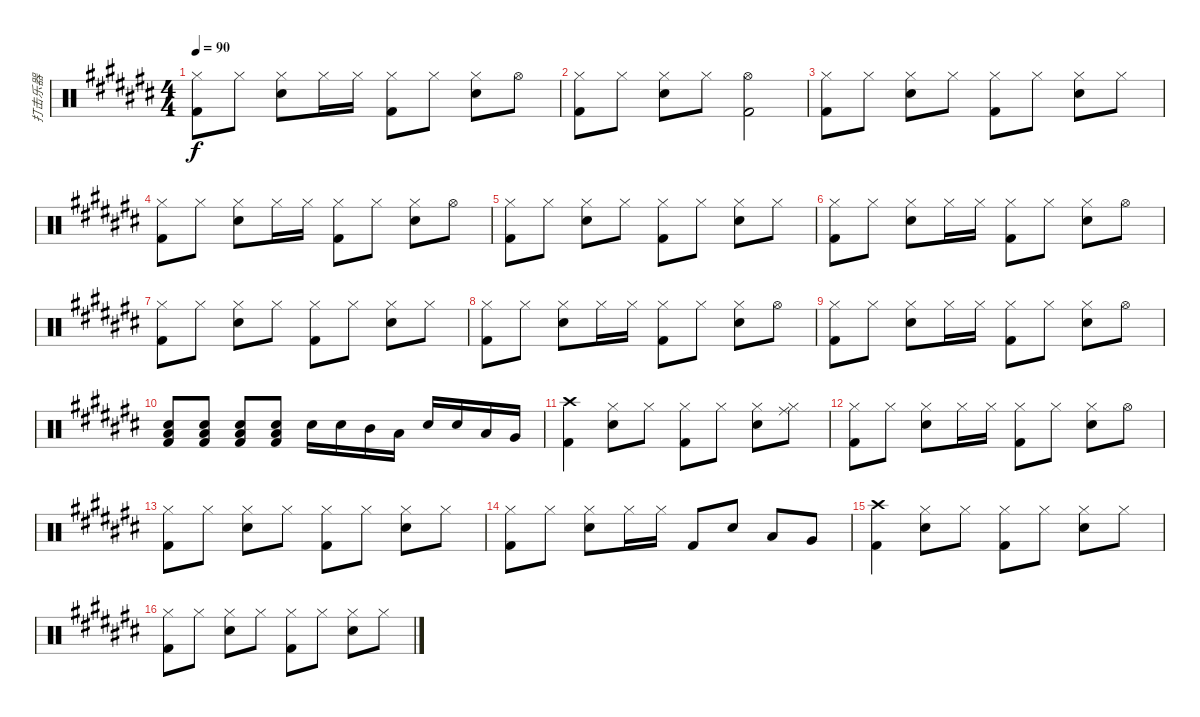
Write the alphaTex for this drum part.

\track ("打击乐器" "打击乐器") {instrument percussion}
\staff {score}
\articulation defaults
\ts (4 4)
\tempo 90
\clef neutral
\ks c#
("Hi-Hat (closed)" "Kick (hit) 2").8{dy f} "Hi-Hat (closed)".8 ("Hi-Hat (closed)" "Snare (hit) 2").8 "Hi-Hat (closed)".16 "Hi-Hat (closed)".16 ("Hi-Hat (closed)" "Kick (hit) 2").8 "Hi-Hat (closed)".8 ("Hi-Hat (closed)" "Snare (hit) 2").8 "Hi-Hat (open)".8 |
("Hi-Hat (closed)" "Kick (hit) 2").8 "Hi-Hat (closed)".8 ("Hi-Hat (closed)" "Snare (hit) 2").8 "Hi-Hat (closed)".8 ("Hi-Hat (open)" "Kick (hit) 2").2 |
("Hi-Hat (closed)" "Kick (hit) 2").8 "Hi-Hat (closed)".8 ("Hi-Hat (closed)" "Snare (hit) 2").8 "Hi-Hat (closed)".8 ("Hi-Hat (closed)" "Kick (hit) 2").8 "Hi-Hat (closed)".8 ("Hi-Hat (closed)" "Snare (hit) 2").8 "Hi-Hat (closed)".8 |
("Hi-Hat (closed)" "Kick (hit) 2").8 "Hi-Hat (closed)".8 ("Hi-Hat (closed)" "Snare (hit) 2").8 "Hi-Hat (closed)".16 "Hi-Hat (closed)".16 ("Hi-Hat (closed)" "Kick (hit) 2").8 "Hi-Hat (closed)".8 ("Hi-Hat (closed)" "Snare (hit) 2").8 "Hi-Hat (open)".8 |
("Hi-Hat (closed)" "Kick (hit) 2").8 "Hi-Hat (closed)".8 ("Hi-Hat (closed)" "Snare (hit) 2").8 "Hi-Hat (closed)".8 ("Hi-Hat (closed)" "Kick (hit) 2").8 "Hi-Hat (closed)".8 ("Hi-Hat (closed)" "Snare (hit) 2").8 "Hi-Hat (closed)".8 |
("Hi-Hat (closed)" "Kick (hit) 2").8 "Hi-Hat (closed)".8 ("Hi-Hat (closed)" "Snare (hit) 2").8 "Hi-Hat (closed)".16 "Hi-Hat (closed)".16 ("Hi-Hat (closed)" "Kick (hit) 2").8 "Hi-Hat (closed)".8 ("Hi-Hat (closed)" "Snare (hit) 2").8 "Hi-Hat (open)".8 |
("Hi-Hat (closed)" "Kick (hit) 2").8 "Hi-Hat (closed)".8 ("Hi-Hat (closed)" "Snare (hit) 2").8 "Hi-Hat (closed)".8 ("Hi-Hat (closed)" "Kick (hit) 2").8 "Hi-Hat (closed)".8 ("Hi-Hat (closed)" "Snare (hit) 2").8 "Hi-Hat (closed)".8 |
("Hi-Hat (closed)" "Kick (hit) 2").8 "Hi-Hat (closed)".8 ("Hi-Hat (closed)" "Snare (hit) 2").8 "Hi-Hat (closed)".16 "Hi-Hat (closed)".16 ("Hi-Hat (closed)" "Kick (hit) 2").8 "Hi-Hat (closed)".8 ("Hi-Hat (closed)" "Snare (hit) 2").8 "Hi-Hat (open)".8 |
("Hi-Hat (closed)" "Kick (hit) 2").8 "Hi-Hat (closed)".8 ("Hi-Hat (closed)" "Snare (hit) 2").8 "Hi-Hat (closed)".16 "Hi-Hat (closed)".16 ("Hi-Hat (closed)" "Kick (hit) 2").8 "Hi-Hat (closed)".8 ("Hi-Hat (closed)" "Snare (hit) 2").8 "Hi-Hat (open)".8 |
("Low Tom (hit)" "Snare (hit) 2" "Kick (hit) 2").8 ("Low Tom (hit)" "Snare (hit) 2" "Kick (hit) 2").8 ("Low Tom (hit)" "Snare (hit) 2" "Kick (hit) 2").8 ("Low Tom (hit)" "Snare (hit) 2" "Kick (hit) 2").8 "Snare (hit) 2".16 "Snare (hit) 2".16 "Mid Tom (hit)".16 "Low Tom (hit)".16 "Snare (hit) 2".16 "Snare (hit) 2".16 "Low Tom (hit)".16 "Very Low Tom (hit)".16 |
("Crash high (hit)" "Kick (hit) 2").4 ("Hi-Hat (closed)" "Snare (hit) 2").8 "Hi-Hat (closed)".8 ("Hi-Hat (closed)" "Kick (hit) 2").8 "Hi-Hat (closed)".8 ("Hi-Hat (closed)" "Snare (hit) 2").8 ("Hi-Hat (closed)" "Ride (middle)").8 |
("Hi-Hat (closed)" "Kick (hit) 2").8 "Hi-Hat (closed)".8 ("Hi-Hat (closed)" "Snare (hit) 2").8 "Hi-Hat (closed)".16 "Hi-Hat (closed)".16 ("Hi-Hat (closed)" "Kick (hit) 2").8 "Hi-Hat (closed)".8 ("Hi-Hat (closed)" "Snare (hit) 2").8 "Hi-Hat (open)".8 |
("Hi-Hat (closed)" "Kick (hit) 2").8 "Hi-Hat (closed)".8 ("Hi-Hat (closed)" "Snare (hit) 2").8 "Hi-Hat (closed)".8 ("Hi-Hat (closed)" "Kick (hit) 2").8 "Hi-Hat (closed)".8 ("Hi-Hat (closed)" "Snare (hit) 2").8 "Hi-Hat (closed)".8 |
("Hi-Hat (closed)" "Kick (hit) 2").8 "Hi-Hat (closed)".8 ("Hi-Hat (closed)" "Snare (hit) 2").8 "Hi-Hat (closed)".16 "Hi-Hat (closed)".16 "Kick (hit) 2".8 "Snare (hit) 2".8 "Low Tom (hit)".8 "Very Low Tom (hit)".8 |
("Crash high (hit)" "Kick (hit) 2").4 ("Hi-Hat (closed)" "Snare (hit) 2").8 "Hi-Hat (closed)".8 ("Hi-Hat (closed)" "Kick (hit) 2").8 "Hi-Hat (closed)".8 ("Hi-Hat (closed)" "Snare (hit) 2").8 "Hi-Hat (closed)".8 |
("Hi-Hat (closed)" "Kick (hit) 2").8 "Hi-Hat (closed)".8 ("Hi-Hat (closed)" "Snare (hit) 2").8 "Hi-Hat (closed)".8 ("Hi-Hat (closed)" "Kick (hit) 2").8 "Hi-Hat (closed)".8 ("Hi-Hat (closed)" "Snare (hit) 2").8 "Hi-Hat (closed)".8
